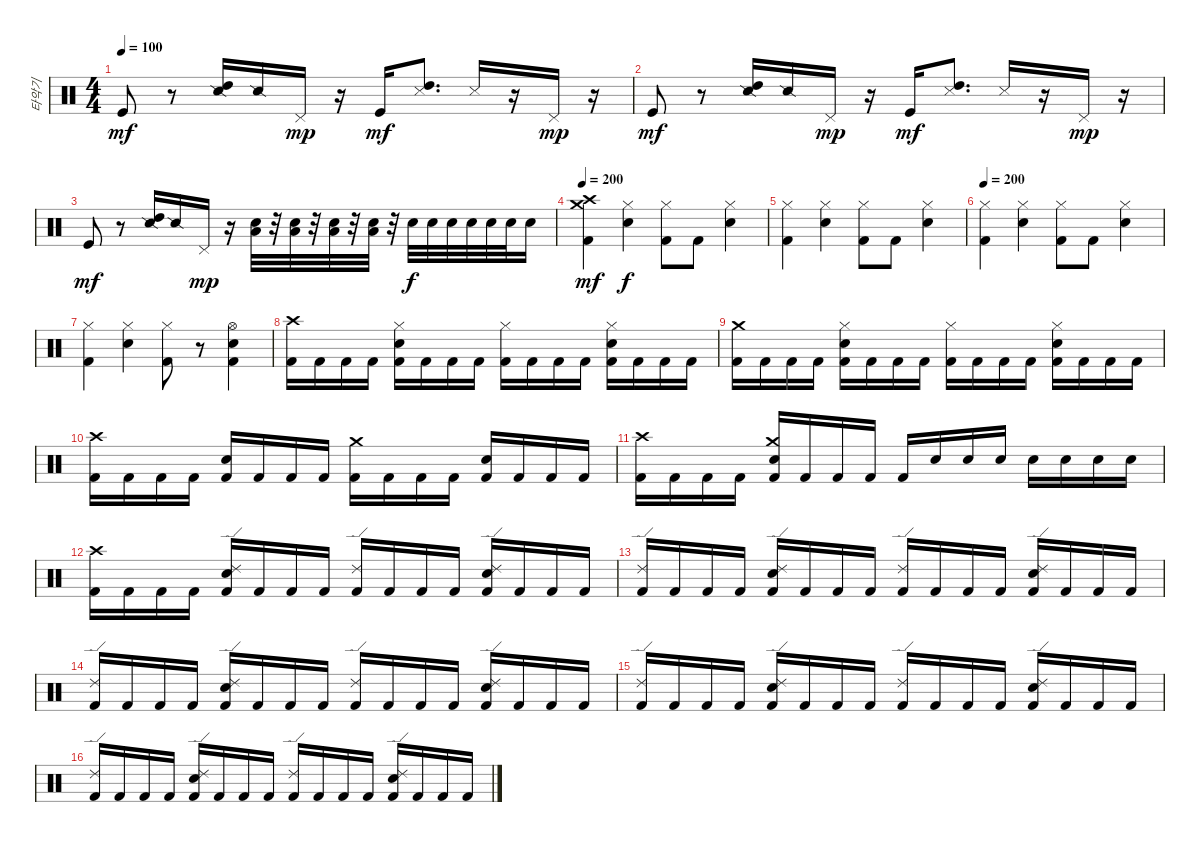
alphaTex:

\track ("타악기" "타악기") {instrument percussion}
\staff {score}
\articulation defaults
\ts (4 4)
\tempo 100
\clef neutral
\ks c "Kick (hit)".8{dy mf}
r.8 ("High Tom (hit)" "Snare (side stick) 2").16 "Snare (side stick) 2".16 "Pedal Hi-Hat (hit)".16{dy mp} r.16 "Kick (hit)".16{dy mf} ("High Tom (hit)" "Snare (side stick) 3").8{d} "Snare (side stick) 3".16 r.16 "Pedal Hi-Hat (hit)".16{dy mp} r.16 |
"Kick (hit)".8{dy mf} r.8 ("High Tom (hit)" "Snare (side stick) 2").16 "Snare (side stick) 2".16 "Pedal Hi-Hat (hit)".16{dy mp} r.16 "Kick (hit)".16{dy mf} ("High Tom (hit)" "Snare (side stick) 3").8{d} "Snare (side stick) 3".16 r.16 "Pedal Hi-Hat (hit)".16{dy mp} r.16 |
"Kick (hit)".8{dy mf} r.8 ("High Tom (hit)" "Snare (side stick) 2").16 "Snare (side stick) 2".16 "Pedal Hi-Hat (hit)".16{dy mp} r.16 ("Snare (hit) 2" "Low Tom (hit)").32 r.32 ("Snare (hit) 2" "Low Tom (hit)").32 r.32 ("Snare (hit) 2" "Low Tom (hit)").32 r.32 ("Snare (hit) 2" "Low Tom (hit)").32 r.32 "Snare (hit) 2".32{dy f} "Snare (hit) 2".32 "Snare (hit) 2".32 "Snare (hit) 2".32 "Snare (hit) 2".32 "Snare (hit) 2".32 "Snare (hit) 2".16 |
\tempo 200
("Crash high (hit)" "Crash medium (hit)" "Kick (hit) 2").4{dy mf} ("Hi-Hat (closed)" "Snare (hit) 2").4{dy f} ("Hi-Hat (closed)" "Kick (hit) 2").8 "Kick (hit) 2".8 ("Hi-Hat (closed)" "Snare (hit) 2").4 |
("Hi-Hat (closed)" "Kick (hit) 2").4 ("Hi-Hat (closed)" "Snare (hit) 2").4 ("Hi-Hat (closed)" "Kick (hit) 2").8 "Kick (hit) 2".8 ("Hi-Hat (closed)" "Snare (hit) 2").4 |
\tempo 200
("Hi-Hat (closed)" "Kick (hit) 2").4 ("Hi-Hat (closed)" "Snare (hit) 2").4 ("Hi-Hat (closed)" "Kick (hit) 2").8 "Kick (hit) 2".8 ("Hi-Hat (closed)" "Snare (hit) 2").4 |
("Hi-Hat (closed)" "Kick (hit) 2").4 ("Hi-Hat (closed)" "Snare (hit) 2").4 ("Hi-Hat (closed)" "Kick (hit) 2").8 r.8 ("Hi-Hat (open)" "Snare (hit) 2" "Kick (hit) 2").4 |
("Crash high (hit)" "Kick (hit) 2").16 "Kick (hit) 2".16 "Kick (hit) 2".16 "Kick (hit) 2".16 ("Hi-Hat (closed)" "Snare (hit) 2" "Kick (hit) 2").16 "Kick (hit) 2".16 "Kick (hit) 2".16 "Kick (hit) 2".16 ("Hi-Hat (closed)" "Kick (hit) 2").16 "Kick (hit) 2".16 "Kick (hit) 2".16 "Kick (hit) 2".16 ("Hi-Hat (closed)" "Snare (hit) 2" "Kick (hit) 2").16 "Kick (hit) 2".16 "Kick (hit) 2".16 "Kick (hit) 2".16 |
("Crash medium (hit)" "Kick (hit) 2").16 "Kick (hit) 2".16 "Kick (hit) 2".16 "Kick (hit) 2".16 ("Hi-Hat (closed)" "Snare (hit) 2" "Kick (hit) 2").16 "Kick (hit) 2".16 "Kick (hit) 2".16 "Kick (hit) 2".16 ("Hi-Hat (closed)" "Kick (hit) 2").16 "Kick (hit) 2".16 "Kick (hit) 2".16 "Kick (hit) 2".16 ("Hi-Hat (closed)" "Snare (hit) 2" "Kick (hit) 2").16 "Kick (hit) 2".16 "Kick (hit) 2".16 "Kick (hit) 2".16 |
("Crash high (hit)" "Kick (hit) 2").16 "Kick (hit) 2".16 "Kick (hit) 2".16 "Kick (hit) 2".16 ("Snare (hit) 2" "Kick (hit) 2").16 "Kick (hit) 2".16 "Kick (hit) 2".16 "Kick (hit) 2".16 ("Crash medium (hit)" "Kick (hit) 2").16 "Kick (hit) 2".16 "Kick (hit) 2".16 "Kick (hit) 2".16 ("Snare (hit) 2" "Kick (hit) 2").16 "Kick (hit) 2".16 "Kick (hit) 2".16 "Kick (hit) 2".16 |
("Crash high (hit)" "Kick (hit) 2").16 "Kick (hit) 2".16 "Kick (hit) 2".16 "Kick (hit) 2".16 ("Crash medium (hit)" "Snare (hit) 2" "Kick (hit) 2").16 "Kick (hit) 2".16 "Kick (hit) 2".16 "Kick (hit) 2".16 "Kick (hit) 2".16 "Snare (hit) 2".16 "Snare (hit) 2".16 "Snare (hit) 2".16 "Snare (hit) 2".16 "Snare (hit) 2".16 "Snare (hit) 2".16 "Snare (hit) 2".16 |
("Crash high (hit)" "Kick (hit) 2").16 "Kick (hit) 2".16 "Kick (hit) 2".16 "Kick (hit) 2".16 ("Ride (edge) 2" "Snare (hit) 2" "Kick (hit) 2").16 "Kick (hit) 2".16 "Kick (hit) 2".16 "Kick (hit) 2".16 ("Ride (edge) 2" "Kick (hit) 2").16 "Kick (hit) 2".16 "Kick (hit) 2".16 "Kick (hit) 2".16 ("Ride (edge) 2" "Snare (hit) 2" "Kick (hit) 2").16 "Kick (hit) 2".16 "Kick (hit) 2".16 "Kick (hit) 2".16 |
("Ride (edge) 2" "Kick (hit) 2").16 "Kick (hit) 2".16 "Kick (hit) 2".16 "Kick (hit) 2".16 ("Ride (edge) 2" "Snare (hit) 2" "Kick (hit) 2").16 "Kick (hit) 2".16 "Kick (hit) 2".16 "Kick (hit) 2".16 ("Ride (edge) 2" "Kick (hit) 2").16 "Kick (hit) 2".16 "Kick (hit) 2".16 "Kick (hit) 2".16 ("Ride (edge) 2" "Snare (hit) 2" "Kick (hit) 2").16 "Kick (hit) 2".16 "Kick (hit) 2".16 "Kick (hit) 2".16 |
("Ride (edge) 2" "Kick (hit) 2").16 "Kick (hit) 2".16 "Kick (hit) 2".16 "Kick (hit) 2".16 ("Ride (edge) 2" "Snare (hit) 2" "Kick (hit) 2").16 "Kick (hit) 2".16 "Kick (hit) 2".16 "Kick (hit) 2".16 ("Ride (edge) 2" "Kick (hit) 2").16 "Kick (hit) 2".16 "Kick (hit) 2".16 "Kick (hit) 2".16 ("Ride (edge) 2" "Snare (hit) 2" "Kick (hit) 2").16 "Kick (hit) 2".16 "Kick (hit) 2".16 "Kick (hit) 2".16 |
("Ride (edge) 2" "Kick (hit) 2").16 "Kick (hit) 2".16 "Kick (hit) 2".16 "Kick (hit) 2".16 ("Ride (edge) 2" "Snare (hit) 2" "Kick (hit) 2").16 "Kick (hit) 2".16 "Kick (hit) 2".16 "Kick (hit) 2".16 ("Ride (edge) 2" "Kick (hit) 2").16 "Kick (hit) 2".16 "Kick (hit) 2".16 "Kick (hit) 2".16 ("Ride (edge) 2" "Snare (hit) 2" "Kick (hit) 2").16 "Kick (hit) 2".16 "Kick (hit) 2".16 "Kick (hit) 2".16 |
("Ride (edge) 2" "Kick (hit) 2").16 "Kick (hit) 2".16 "Kick (hit) 2".16 "Kick (hit) 2".16 ("Ride (edge) 2" "Snare (hit) 2" "Kick (hit) 2").16 "Kick (hit) 2".16 "Kick (hit) 2".16 "Kick (hit) 2".16 ("Ride (edge) 2" "Kick (hit) 2").16 "Kick (hit) 2".16 "Kick (hit) 2".16 "Kick (hit) 2".16 ("Ride (edge) 2" "Snare (hit) 2" "Kick (hit) 2").16 "Kick (hit) 2".16 "Kick (hit) 2".16 "Kick (hit) 2".16
